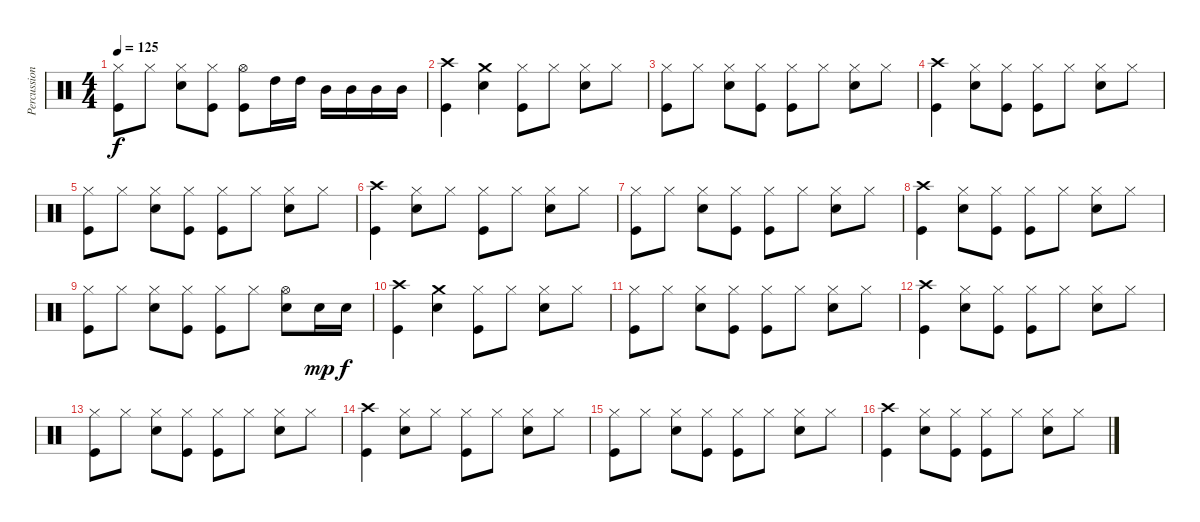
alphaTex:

\track ("Percussion" "Percussion") {instrument percussion}
\staff {score}
\articulation defaults
\ts (4 4)
\tempo 125
\clef neutral
\ks c
("Hi-Hat (closed)" "Kick (hit)").8{dy f} "Hi-Hat (closed)".8 ("Hi-Hat (closed)" "Electric Snare (hit)").8 ("Hi-Hat (closed)" "Kick (hit)").8 ("Hi-Hat (open)" "Kick (hit)").8 "High Tom (hit)".16 "High Tom (hit)".16 "Mid Tom (hit)".16 "Mid Tom (hit)".16 "Mid Tom (hit)".16 "Mid Tom (hit)".16 |
("Crash high (hit)" "Kick (hit)").4 ("Crash medium (hit)" "Electric Snare (hit)").4 ("Hi-Hat (closed)" "Kick (hit)").8 "Hi-Hat (closed)".8 ("Hi-Hat (closed)" "Electric Snare (hit)").8 "Hi-Hat (closed)".8 |
("Hi-Hat (closed)" "Kick (hit)").8 "Hi-Hat (closed)".8 ("Hi-Hat (closed)" "Electric Snare (hit)").8 ("Hi-Hat (closed)" "Kick (hit)").8 ("Hi-Hat (closed)" "Kick (hit)").8 "Hi-Hat (closed)".8 ("Hi-Hat (closed)" "Electric Snare (hit)").8 "Hi-Hat (closed)".8 |
("Crash high (hit)" "Kick (hit)").4 ("Hi-Hat (closed)" "Electric Snare (hit)").8 ("Hi-Hat (closed)" "Kick (hit)").8 ("Hi-Hat (closed)" "Kick (hit)").8 "Hi-Hat (closed)".8 ("Hi-Hat (closed)" "Electric Snare (hit)").8 "Hi-Hat (closed)".8 |
("Hi-Hat (closed)" "Kick (hit)").8 "Hi-Hat (closed)".8 ("Hi-Hat (closed)" "Electric Snare (hit)").8 ("Hi-Hat (closed)" "Kick (hit)").8 ("Hi-Hat (closed)" "Kick (hit)").8 "Hi-Hat (closed)".8 ("Hi-Hat (closed)" "Electric Snare (hit)").8 "Hi-Hat (closed)".8 |
("Crash high (hit)" "Kick (hit)").4 ("Hi-Hat (closed)" "Electric Snare (hit)").8 "Hi-Hat (closed)".8 ("Hi-Hat (closed)" "Kick (hit)").8 "Hi-Hat (closed)".8 ("Hi-Hat (closed)" "Electric Snare (hit)").8 "Hi-Hat (closed)".8 |
("Hi-Hat (closed)" "Kick (hit)").8 "Hi-Hat (closed)".8 ("Hi-Hat (closed)" "Electric Snare (hit)").8 ("Hi-Hat (closed)" "Kick (hit)").8 ("Hi-Hat (closed)" "Kick (hit)").8 "Hi-Hat (closed)".8 ("Hi-Hat (closed)" "Electric Snare (hit)").8 "Hi-Hat (closed)".8 |
("Crash high (hit)" "Kick (hit)").4 ("Hi-Hat (closed)" "Electric Snare (hit)").8 ("Hi-Hat (closed)" "Kick (hit)").8 ("Hi-Hat (closed)" "Kick (hit)").8 "Hi-Hat (closed)".8 ("Hi-Hat (closed)" "Electric Snare (hit)").8 "Hi-Hat (closed)".8 |
("Hi-Hat (closed)" "Kick (hit)").8 "Hi-Hat (closed)".8 ("Hi-Hat (closed)" "Electric Snare (hit)").8 ("Hi-Hat (closed)" "Kick (hit)").8 ("Hi-Hat (closed)" "Kick (hit)").8 "Hi-Hat (closed)".8 ("Hi-Hat (open)" "Electric Snare (hit)").8 "Electric Snare (hit)".16{dy mp} "Electric Snare (hit)".16{dy f} |
("Crash high (hit)" "Kick (hit)").4 ("Crash medium (hit)" "Electric Snare (hit)").4 ("Hi-Hat (closed)" "Kick (hit)").8 "Hi-Hat (closed)".8 ("Hi-Hat (closed)" "Electric Snare (hit)").8 "Hi-Hat (closed)".8 |
("Hi-Hat (closed)" "Kick (hit)").8 "Hi-Hat (closed)".8 ("Hi-Hat (closed)" "Electric Snare (hit)").8 ("Hi-Hat (closed)" "Kick (hit)").8 ("Hi-Hat (closed)" "Kick (hit)").8 "Hi-Hat (closed)".8 ("Hi-Hat (closed)" "Electric Snare (hit)").8 "Hi-Hat (closed)".8 |
("Crash high (hit)" "Kick (hit)").4 ("Hi-Hat (closed)" "Electric Snare (hit)").8 ("Hi-Hat (closed)" "Kick (hit)").8 ("Hi-Hat (closed)" "Kick (hit)").8 "Hi-Hat (closed)".8 ("Hi-Hat (closed)" "Electric Snare (hit)").8 "Hi-Hat (closed)".8 |
("Hi-Hat (closed)" "Kick (hit)").8 "Hi-Hat (closed)".8 ("Hi-Hat (closed)" "Electric Snare (hit)").8 ("Hi-Hat (closed)" "Kick (hit)").8 ("Hi-Hat (closed)" "Kick (hit)").8 "Hi-Hat (closed)".8 ("Hi-Hat (closed)" "Electric Snare (hit)").8 "Hi-Hat (closed)".8 |
("Crash high (hit)" "Kick (hit)").4 ("Hi-Hat (closed)" "Electric Snare (hit)").8 "Hi-Hat (closed)".8 ("Hi-Hat (closed)" "Kick (hit)").8 "Hi-Hat (closed)".8 ("Hi-Hat (closed)" "Electric Snare (hit)").8 "Hi-Hat (closed)".8 |
("Hi-Hat (closed)" "Kick (hit)").8 "Hi-Hat (closed)".8 ("Hi-Hat (closed)" "Electric Snare (hit)").8 ("Hi-Hat (closed)" "Kick (hit)").8 ("Hi-Hat (closed)" "Kick (hit)").8 "Hi-Hat (closed)".8 ("Hi-Hat (closed)" "Electric Snare (hit)").8 "Hi-Hat (closed)".8 |
("Crash high (hit)" "Kick (hit)").4 ("Hi-Hat (closed)" "Electric Snare (hit)").8 ("Hi-Hat (closed)" "Kick (hit)").8 ("Hi-Hat (closed)" "Kick (hit)").8 "Hi-Hat (closed)".8 ("Hi-Hat (closed)" "Electric Snare (hit)").8 "Hi-Hat (closed)".8
